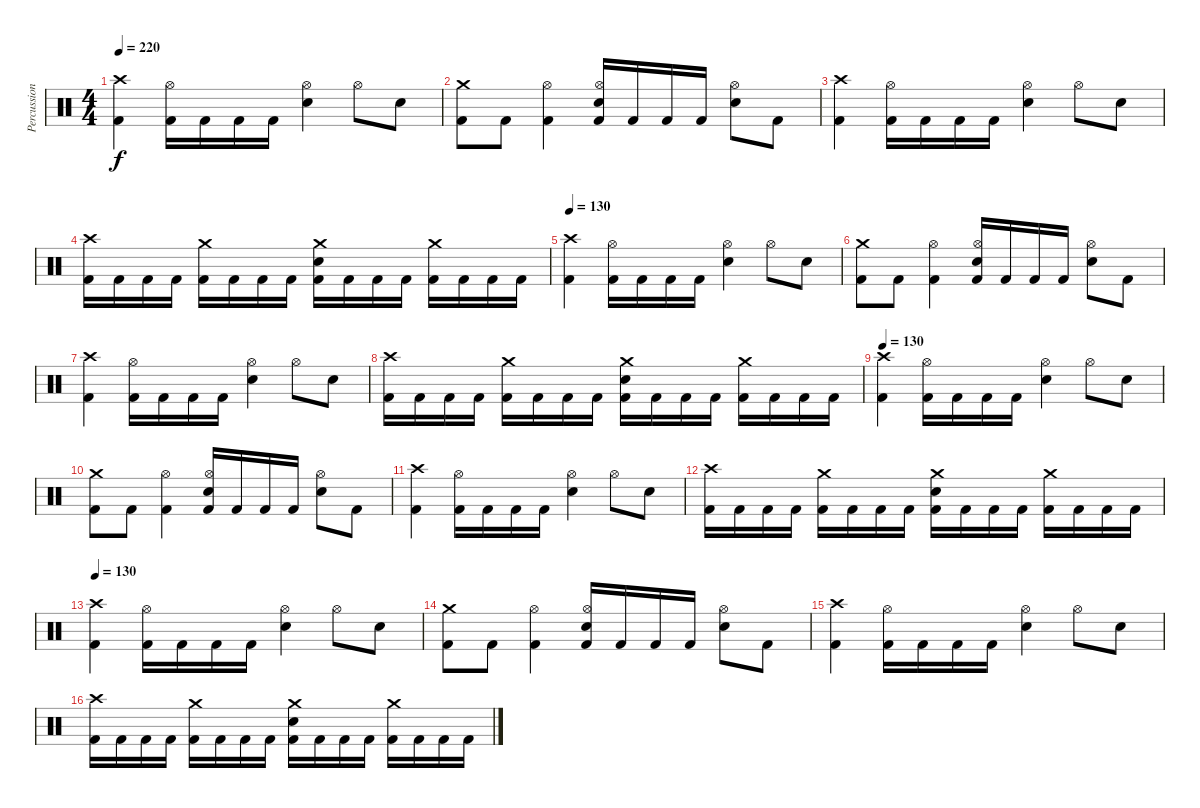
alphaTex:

\track ("Percussion" "Percussion") {instrument percussion}
\staff {score}
\articulation defaults
\ts (4 4)
\tempo 220
\tempo 130
\tempo 220
\clef neutral
\ks c
("Crash high (hit)" "Kick (hit) 2").4{dy f} ("Hi-Hat (open)" "Kick (hit) 2").16 "Kick (hit) 2".16 "Kick (hit) 2".16 "Kick (hit) 2".16 ("Hi-Hat (open)" "Electric Snare (hit)").4 "Hi-Hat (open)".8 "Electric Snare (hit)".8 |
("Crash medium (hit)" "Kick (hit) 2").8 "Kick (hit) 2".8 ("Hi-Hat (open)" "Kick (hit) 2").4 ("Hi-Hat (open)" "Electric Snare (hit)" "Kick (hit) 2").16 "Kick (hit) 2".16 "Kick (hit) 2".16 "Kick (hit) 2".16 ("Hi-Hat (open)" "Electric Snare (hit)").8 "Kick (hit) 2".8 |
("Crash high (hit)" "Kick (hit) 2").4 ("Hi-Hat (open)" "Kick (hit) 2").16 "Kick (hit) 2".16 "Kick (hit) 2".16 "Kick (hit) 2".16 ("Hi-Hat (open)" "Electric Snare (hit)").4 "Hi-Hat (open)".8 "Electric Snare (hit)".8 |
("Crash high (hit)" "Kick (hit) 2").16 "Kick (hit) 2".16 "Kick (hit) 2".16 "Kick (hit) 2".16 ("Crash medium (hit)" "Kick (hit) 2").16 "Kick (hit) 2".16 "Kick (hit) 2".16 "Kick (hit) 2".16 ("Crash medium (hit)" "Electric Snare (hit)" "Kick (hit) 2").16 "Kick (hit) 2".16 "Kick (hit) 2".16 "Kick (hit) 2".16 ("Crash medium (hit)" "Kick (hit) 2").16 "Kick (hit) 2".16 "Kick (hit) 2".16 "Kick (hit) 2".16 |
\tempo 130
("Crash high (hit)" "Kick (hit) 2").4 ("Hi-Hat (open)" "Kick (hit) 2").16 "Kick (hit) 2".16 "Kick (hit) 2".16 "Kick (hit) 2".16 ("Hi-Hat (open)" "Electric Snare (hit)").4 "Hi-Hat (open)".8 "Electric Snare (hit)".8 |
("Crash medium (hit)" "Kick (hit) 2").8 "Kick (hit) 2".8 ("Hi-Hat (open)" "Kick (hit) 2").4 ("Hi-Hat (open)" "Electric Snare (hit)" "Kick (hit) 2").16 "Kick (hit) 2".16 "Kick (hit) 2".16 "Kick (hit) 2".16 ("Hi-Hat (open)" "Electric Snare (hit)").8 "Kick (hit) 2".8 |
("Crash high (hit)" "Kick (hit) 2").4 ("Hi-Hat (open)" "Kick (hit) 2").16 "Kick (hit) 2".16 "Kick (hit) 2".16 "Kick (hit) 2".16 ("Hi-Hat (open)" "Electric Snare (hit)").4 "Hi-Hat (open)".8 "Electric Snare (hit)".8 |
("Crash high (hit)" "Kick (hit) 2").16 "Kick (hit) 2".16 "Kick (hit) 2".16 "Kick (hit) 2".16 ("Crash medium (hit)" "Kick (hit) 2").16 "Kick (hit) 2".16 "Kick (hit) 2".16 "Kick (hit) 2".16 ("Crash medium (hit)" "Electric Snare (hit)" "Kick (hit) 2").16 "Kick (hit) 2".16 "Kick (hit) 2".16 "Kick (hit) 2".16 ("Crash medium (hit)" "Kick (hit) 2").16 "Kick (hit) 2".16 "Kick (hit) 2".16 "Kick (hit) 2".16 |
\tempo 130
("Crash high (hit)" "Kick (hit) 2").4 ("Hi-Hat (open)" "Kick (hit) 2").16 "Kick (hit) 2".16 "Kick (hit) 2".16 "Kick (hit) 2".16 ("Hi-Hat (open)" "Electric Snare (hit)").4 "Hi-Hat (open)".8 "Electric Snare (hit)".8 |
("Crash medium (hit)" "Kick (hit) 2").8 "Kick (hit) 2".8 ("Hi-Hat (open)" "Kick (hit) 2").4 ("Hi-Hat (open)" "Electric Snare (hit)" "Kick (hit) 2").16 "Kick (hit) 2".16 "Kick (hit) 2".16 "Kick (hit) 2".16 ("Hi-Hat (open)" "Electric Snare (hit)").8 "Kick (hit) 2".8 |
("Crash high (hit)" "Kick (hit) 2").4 ("Hi-Hat (open)" "Kick (hit) 2").16 "Kick (hit) 2".16 "Kick (hit) 2".16 "Kick (hit) 2".16 ("Hi-Hat (open)" "Electric Snare (hit)").4 "Hi-Hat (open)".8 "Electric Snare (hit)".8 |
("Crash high (hit)" "Kick (hit) 2").16 "Kick (hit) 2".16 "Kick (hit) 2".16 "Kick (hit) 2".16 ("Crash medium (hit)" "Kick (hit) 2").16 "Kick (hit) 2".16 "Kick (hit) 2".16 "Kick (hit) 2".16 ("Crash medium (hit)" "Electric Snare (hit)" "Kick (hit) 2").16 "Kick (hit) 2".16 "Kick (hit) 2".16 "Kick (hit) 2".16 ("Crash medium (hit)" "Kick (hit) 2").16 "Kick (hit) 2".16 "Kick (hit) 2".16 "Kick (hit) 2".16 |
\tempo 130
("Crash high (hit)" "Kick (hit) 2").4 ("Hi-Hat (open)" "Kick (hit) 2").16 "Kick (hit) 2".16 "Kick (hit) 2".16 "Kick (hit) 2".16 ("Hi-Hat (open)" "Electric Snare (hit)").4 "Hi-Hat (open)".8 "Electric Snare (hit)".8 |
("Crash medium (hit)" "Kick (hit) 2").8 "Kick (hit) 2".8 ("Hi-Hat (open)" "Kick (hit) 2").4 ("Hi-Hat (open)" "Electric Snare (hit)" "Kick (hit) 2").16 "Kick (hit) 2".16 "Kick (hit) 2".16 "Kick (hit) 2".16 ("Hi-Hat (open)" "Electric Snare (hit)").8 "Kick (hit) 2".8 |
("Crash high (hit)" "Kick (hit) 2").4 ("Hi-Hat (open)" "Kick (hit) 2").16 "Kick (hit) 2".16 "Kick (hit) 2".16 "Kick (hit) 2".16 ("Hi-Hat (open)" "Electric Snare (hit)").4 "Hi-Hat (open)".8 "Electric Snare (hit)".8 |
("Crash high (hit)" "Kick (hit) 2").16 "Kick (hit) 2".16 "Kick (hit) 2".16 "Kick (hit) 2".16 ("Crash medium (hit)" "Kick (hit) 2").16 "Kick (hit) 2".16 "Kick (hit) 2".16 "Kick (hit) 2".16 ("Crash medium (hit)" "Electric Snare (hit)" "Kick (hit) 2").16 "Kick (hit) 2".16 "Kick (hit) 2".16 "Kick (hit) 2".16 ("Crash medium (hit)" "Kick (hit) 2").16 "Kick (hit) 2".16 "Kick (hit) 2".16 "Kick (hit) 2".16
